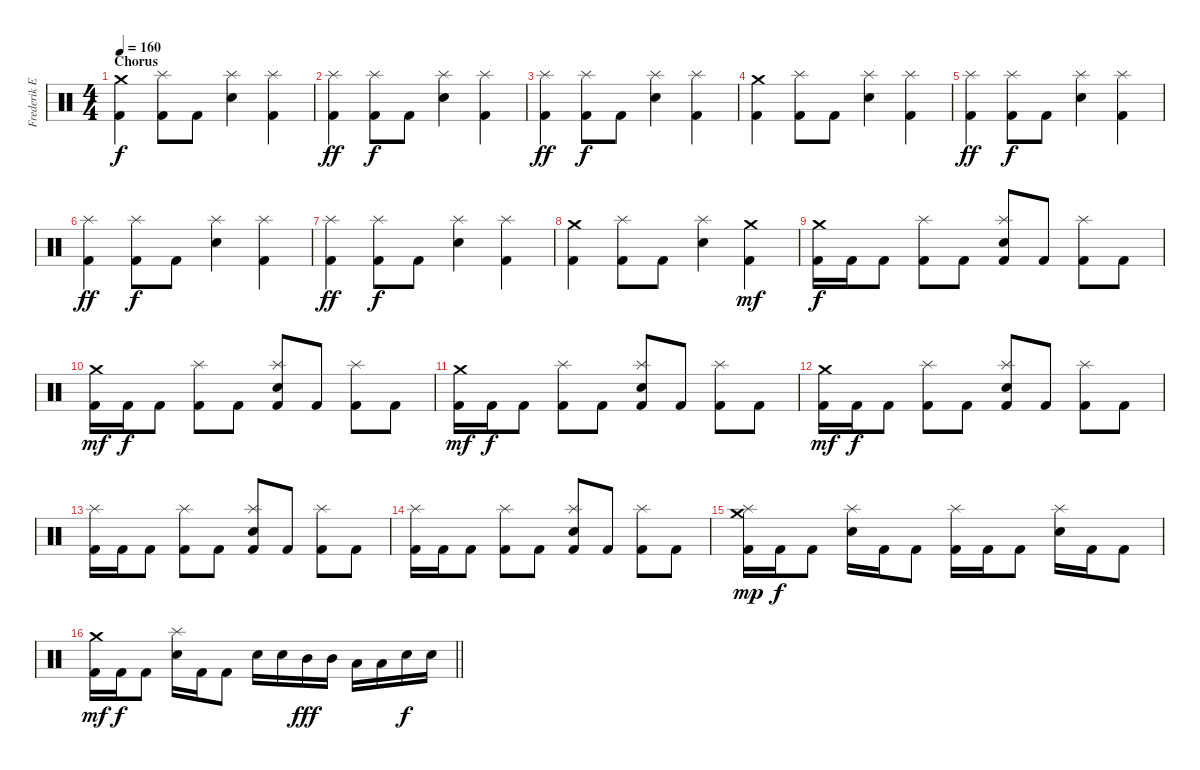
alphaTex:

\track ("Frederik Ehmke" "Frederik E") {instrument percussion}
\staff {score}
\articulation defaults
\ts (4 4)
\section ("" "Chorus")
\tempo 160
\clef neutral
\ks c
("Crash medium (hit)" "Kick (hit) 2").4{dy f} ("Splash (hit)" "Kick (hit) 2").8 "Kick (hit) 2".8 ("Splash (hit)" "Electric Snare (hit)").4 ("Splash (hit)" "Kick (hit) 2").4 |
("Splash (hit)" "Kick (hit) 2").4{dy ff} ("Splash (hit)" "Kick (hit) 2").8{dy f} "Kick (hit) 2".8 ("Splash (hit)" "Electric Snare (hit)").4 ("Splash (hit)" "Kick (hit) 2").4 |
("Splash (hit)" "Kick (hit) 2").4{dy ff} ("Splash (hit)" "Kick (hit) 2").8{dy f} "Kick (hit) 2".8 ("Splash (hit)" "Electric Snare (hit)").4 ("Splash (hit)" "Kick (hit) 2").4 |
("Crash medium (hit)" "Kick (hit) 2").4 ("Splash (hit)" "Kick (hit) 2").8 "Kick (hit) 2".8 ("Splash (hit)" "Electric Snare (hit)").4 ("Splash (hit)" "Kick (hit) 2").4 |
("Splash (hit)" "Kick (hit) 2").4{dy ff} ("Splash (hit)" "Kick (hit) 2").8{dy f} "Kick (hit) 2".8 ("Splash (hit)" "Electric Snare (hit)").4 ("Splash (hit)" "Kick (hit) 2").4 |
("Splash (hit)" "Kick (hit) 2").4{dy ff} ("Splash (hit)" "Kick (hit) 2").8{dy f} "Kick (hit) 2".8 ("Splash (hit)" "Electric Snare (hit)").4 ("Splash (hit)" "Kick (hit) 2").4 |
("Splash (hit)" "Kick (hit) 2").4{dy ff} ("Splash (hit)" "Kick (hit) 2").8{dy f} "Kick (hit) 2".8 ("Splash (hit)" "Electric Snare (hit)").4 ("Splash (hit)" "Kick (hit) 2").4 |
("Crash medium (hit)" "Kick (hit) 2").4 ("Splash (hit)" "Kick (hit) 2").8 "Kick (hit) 2".8 ("Splash (hit)" "Electric Snare (hit)").4 ("Crash medium (hit)" "Kick (hit) 2").4{dy mf} |
("Crash medium (hit)" "Kick (hit) 2").16{dy f} "Kick (hit) 2".16 "Kick (hit) 2".8 ("Splash (hit)" "Kick (hit) 2").8 "Kick (hit) 2".8 ("Splash (hit)" "Electric Snare (hit)" "Kick (hit) 2").8 "Kick (hit) 2".8 ("Splash (hit)" "Kick (hit) 2").8 "Kick (hit) 2".8 |
("Crash medium (hit)" "Kick (hit) 2").16{dy mf} "Kick (hit) 2".16{dy f} "Kick (hit) 2".8 ("Splash (hit)" "Kick (hit) 2").8 "Kick (hit) 2".8 ("Splash (hit)" "Electric Snare (hit)" "Kick (hit) 2").8 "Kick (hit) 2".8 ("Splash (hit)" "Kick (hit) 2").8 "Kick (hit) 2".8 |
("Crash medium (hit)" "Kick (hit) 2").16{dy mf} "Kick (hit) 2".16{dy f} "Kick (hit) 2".8 ("Splash (hit)" "Kick (hit) 2").8 "Kick (hit) 2".8 ("Splash (hit)" "Electric Snare (hit)" "Kick (hit) 2").8 "Kick (hit) 2".8 ("Splash (hit)" "Kick (hit) 2").8 "Kick (hit) 2".8 |
("Crash medium (hit)" "Kick (hit) 2").16{dy mf} "Kick (hit) 2".16{dy f} "Kick (hit) 2".8 ("Splash (hit)" "Kick (hit) 2").8 "Kick (hit) 2".8 ("Splash (hit)" "Electric Snare (hit)" "Kick (hit) 2").8 "Kick (hit) 2".8 ("Splash (hit)" "Kick (hit) 2").8 "Kick (hit) 2".8 |
("Splash (hit)" "Kick (hit) 2").16 "Kick (hit) 2".16 "Kick (hit) 2".8 ("Splash (hit)" "Kick (hit) 2").8 "Kick (hit) 2".8 ("Splash (hit)" "Electric Snare (hit)" "Kick (hit) 2").8 "Kick (hit) 2".8 ("Splash (hit)" "Kick (hit) 2").8 "Kick (hit) 2".8 |
("Splash (hit)" "Kick (hit) 2").16 "Kick (hit) 2".16 "Kick (hit) 2".8 ("Splash (hit)" "Kick (hit) 2").8 "Kick (hit) 2".8 ("Splash (hit)" "Electric Snare (hit)" "Kick (hit) 2").8 "Kick (hit) 2".8 ("Splash (hit)" "Kick (hit) 2").8 "Kick (hit) 2".8 |
("Splash (hit)" "Crash medium (hit)" "Kick (hit) 2").16{dy mp} "Kick (hit) 2".16{dy f} "Kick (hit) 2".8 ("Splash (hit)" "Electric Snare (hit)").16 "Kick (hit) 2".16 "Kick (hit) 2".8 ("Splash (hit)" "Kick (hit) 2").16 "Kick (hit) 2".16 "Kick (hit) 2".8 ("Splash (hit)" "Electric Snare (hit)").16 "Kick (hit) 2".16 "Kick (hit) 2".8 |
\barLineRight lightlight
("Crash medium (hit)" "Kick (hit) 2").16{dy mf} "Kick (hit) 2".16{dy f} "Kick (hit) 2".8 ("Splash (hit)" "Electric Snare (hit)").16 "Kick (hit) 2".16 "Kick (hit) 2".8 "Electric Snare (hit)".16 "Electric Snare (hit)".16 "Mid Tom (hit)".16{dy fff} "Mid Tom (hit)".16 "Low Tom (hit)".16 "Low Tom (hit)".16 "Electric Snare (hit)".16{dy f} "Electric Snare (hit)".16
